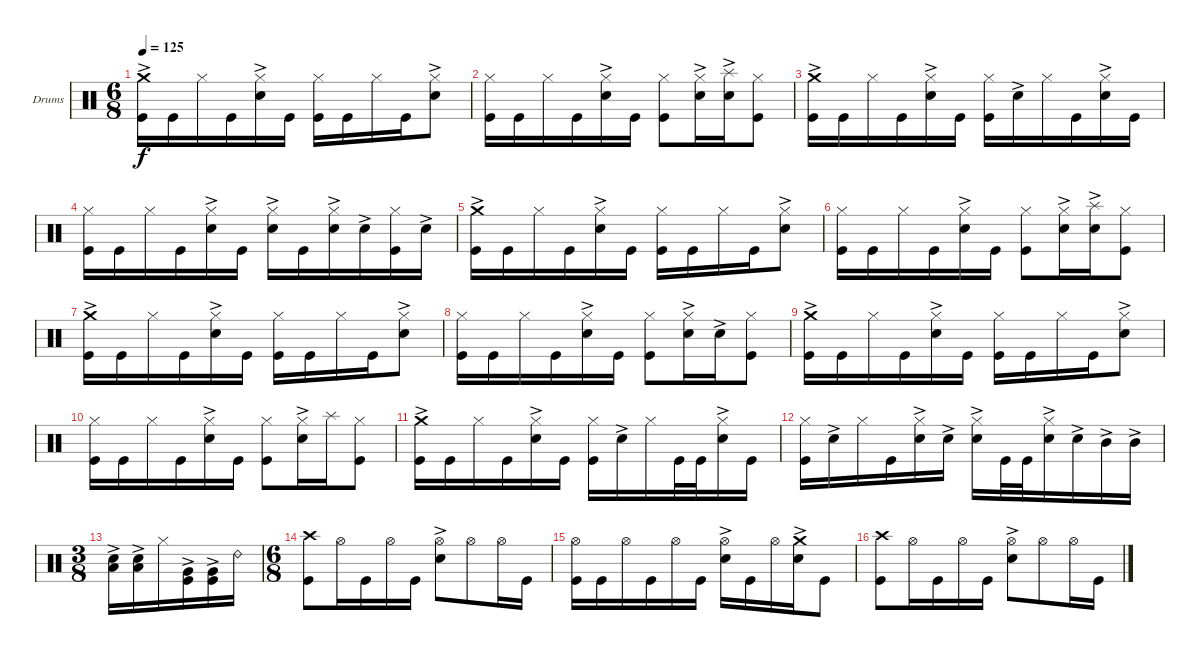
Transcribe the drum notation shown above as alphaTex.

\defaultSystemsLayout 4
\bracketExtendMode groupsimilarinstruments
\firstSystemTrackNameOrientation horizontal
\otherSystemsTrackNameOrientation horizontal
\track ("Drumkit" "Drums") {instrument percussion}
\staff {score}
\articulation defaults
\ts (6 8)
\tempo 125
\clef neutral
\ks c
("Kick (hit)" "Crash medium (hit)"{ac}).16{dy f} "Kick (hit)".16 "Hi-Hat (closed)".16 "Kick (hit)".16 ("Snare (hit) 2"{ac} "Hi-Hat (closed)").16 "Kick (hit)".16 ("Hi-Hat (closed)" "Kick (hit)").16 "Kick (hit)".16 "Hi-Hat (closed)".16 "Kick (hit)".16 ("Hi-Hat (closed)" "Snare (hit) 2"{ac}).8 |
("Kick (hit)" "Hi-Hat (closed)").16 "Kick (hit)".16 "Hi-Hat (closed)".16 "Kick (hit)".16 ("Snare (hit) 2"{ac} "Hi-Hat (closed)").16 "Kick (hit)".16 ("Hi-Hat (closed)" "Kick (hit)").8 ("Hi-Hat (closed)" "Snare (hit) 2"{ac}).16 ("Snare (hit) 2"{ac} "Splash (hit)").16 ("Kick (hit)" "Hi-Hat (closed)").8 |
("Kick (hit)" "Crash medium (hit)"{ac}).16 "Kick (hit)".16 "Hi-Hat (closed)".16 "Kick (hit)".16 ("Snare (hit) 2"{ac} "Hi-Hat (closed)").16 "Kick (hit)".16 ("Hi-Hat (closed)" "Kick (hit)").16 "Snare (hit) 2"{ac}.16 "Hi-Hat (closed)".16 "Kick (hit)".16 ("Hi-Hat (closed)" "Snare (hit) 2"{ac}).16 "Kick (hit)".16 |
("Kick (hit)" "Hi-Hat (closed)").16 "Kick (hit)".16 "Hi-Hat (closed)".16 "Kick (hit)".16 ("Snare (hit) 2"{ac} "Hi-Hat (closed)").16 "Kick (hit)".16 ("Hi-Hat (closed)" "Snare (hit) 2"{ac}).16 "Kick (hit)".16 ("Hi-Hat (closed)" "Snare (hit) 2"{ac}).16 "Snare (hit) 2"{ac}.16 ("Kick (hit)" "Hi-Hat (closed)").16 "Snare (hit) 2"{ac}.16 |
("Kick (hit)" "Crash medium (hit)"{ac}).16 "Kick (hit)".16 "Hi-Hat (closed)".16 "Kick (hit)".16 ("Snare (hit) 2"{ac} "Hi-Hat (closed)").16 "Kick (hit)".16 ("Hi-Hat (closed)" "Kick (hit)").16 "Kick (hit)".16 "Hi-Hat (closed)".16 "Kick (hit)".16 ("Hi-Hat (closed)" "Snare (hit) 2"{ac}).8 |
("Kick (hit)" "Hi-Hat (closed)").16 "Kick (hit)".16 "Hi-Hat (closed)".16 "Kick (hit)".16 ("Snare (hit) 2"{ac} "Hi-Hat (closed)").16 "Kick (hit)".16 ("Hi-Hat (closed)" "Kick (hit)").8 ("Hi-Hat (closed)" "Snare (hit) 2"{ac}).16 ("Snare (hit) 2"{ac} "Splash (hit)").16 ("Kick (hit)" "Hi-Hat (closed)").8 |
("Kick (hit)" "Crash medium (hit)"{ac}).16 "Kick (hit)".16 "Hi-Hat (closed)".16 "Kick (hit)".16 ("Snare (hit) 2"{ac} "Hi-Hat (closed)").16 "Kick (hit)".16 ("Hi-Hat (closed)" "Kick (hit)").16 "Kick (hit)".16 "Hi-Hat (closed)".16 "Kick (hit)".16 ("Hi-Hat (closed)" "Snare (hit) 2"{ac}).8 |
("Kick (hit)" "Hi-Hat (closed)").16 "Kick (hit)".16 "Hi-Hat (closed)".16 "Kick (hit)".16 ("Snare (hit) 2"{ac} "Hi-Hat (closed)").16 "Kick (hit)".16 ("Hi-Hat (closed)" "Kick (hit)").8 ("Hi-Hat (closed)" "Snare (hit) 2"{ac}).16 "Snare (hit) 2"{ac}.16 ("Kick (hit)" "Hi-Hat (closed)").8 |
("Kick (hit)" "Crash medium (hit)"{ac}).16 "Kick (hit)".16 "Hi-Hat (closed)".16 "Kick (hit)".16 ("Snare (hit) 2"{ac} "Hi-Hat (closed)").16 "Kick (hit)".16 ("Hi-Hat (closed)" "Kick (hit)").16 "Kick (hit)".16 "Hi-Hat (closed)".16 "Kick (hit)".16 ("Hi-Hat (closed)" "Snare (hit) 2"{ac}).8 |
("Kick (hit)" "Hi-Hat (closed)").16 "Kick (hit)".16 "Hi-Hat (closed)".16 "Kick (hit)".16 ("Snare (hit) 2"{ac} "Hi-Hat (closed)").16 "Kick (hit)".16 ("Hi-Hat (closed)" "Kick (hit)").8 ("Hi-Hat (closed)" "Snare (hit) 2"{ac}).16 "Splash (hit)".16 ("Kick (hit)" "Hi-Hat (closed)").8 |
("Kick (hit)" "Crash medium (hit)"{ac}).16 "Kick (hit)".16 "Hi-Hat (closed)".16 "Kick (hit)".16 ("Snare (hit) 2"{ac} "Hi-Hat (closed)").16 "Kick (hit)".16 ("Hi-Hat (closed)" "Kick (hit)").16 "Snare (hit) 2"{ac}.16 "Hi-Hat (closed)".16 "Kick (hit)".32 "Kick (hit)".32 ("Hi-Hat (closed)" "Snare (hit) 2"{ac}).16 "Kick (hit)".16 |
("Kick (hit)" "Hi-Hat (closed)").16 "Snare (hit) 2"{ac}.16 "Hi-Hat (closed)".16 "Kick (hit)".16 ("Snare (hit) 2"{ac} "Hi-Hat (closed)").16 "Snare (hit) 2"{ac}.16 ("Hi-Hat (closed)" "Snare (hit) 2"{ac}).16 "Kick (hit)".32 "Kick (hit)".32 ("Hi-Hat (closed)" "Snare (hit) 2"{ac}).16 "Snare (hit) 2"{ac}.16 "Mid Tom (hit)"{ac}.16 "Mid Tom (hit)"{ac}.16 |
\ts (3 8)
("Snare (hit) 2"{ac} "Low Tom (hit)"{ac}).16 ("Snare (hit) 2"{ac} "Low Tom (hit)"{ac}).16 "Hi-Hat (closed)".16 ("Kick (hit)" "Very Low Tom (hit)"{ac}).16 ("Kick (hit)" "Very Low Tom (hit)"{ac}).16 "Ride (bell) 2".16 |
\ts (6 8)
("Crash high (hit)" "Kick (hit)").8 "Hi-Hat (open)".16 "Kick (hit)".16 "Hi-Hat (open)".16 "Kick (hit)".16 ("Hi-Hat (open)" "Snare (hit) 2"{ac}).8 "Hi-Hat (open)".8 "Hi-Hat (open)".16 "Kick (hit)".16 |
("Kick (hit)" "Hi-Hat (open)").16 "Kick (hit)".16 "Hi-Hat (open)".16 "Kick (hit)".16 "Hi-Hat (open)".16 "Kick (hit)".16 ("Hi-Hat (open)" "Snare (hit) 2"{ac}).16 "Kick (hit)".16 "Hi-Hat (open)".16 ("Snare (hit) 2"{ac} "Crash medium (hit)"{ac}).16 "Kick (hit)".8 |
("Crash high (hit)" "Kick (hit)").8 "Hi-Hat (open)".16 "Kick (hit)".16 "Hi-Hat (open)".16 "Kick (hit)".16 ("Hi-Hat (open)" "Snare (hit) 2"{ac}).8 "Hi-Hat (open)".8 "Hi-Hat (open)".16 "Kick (hit)".16
